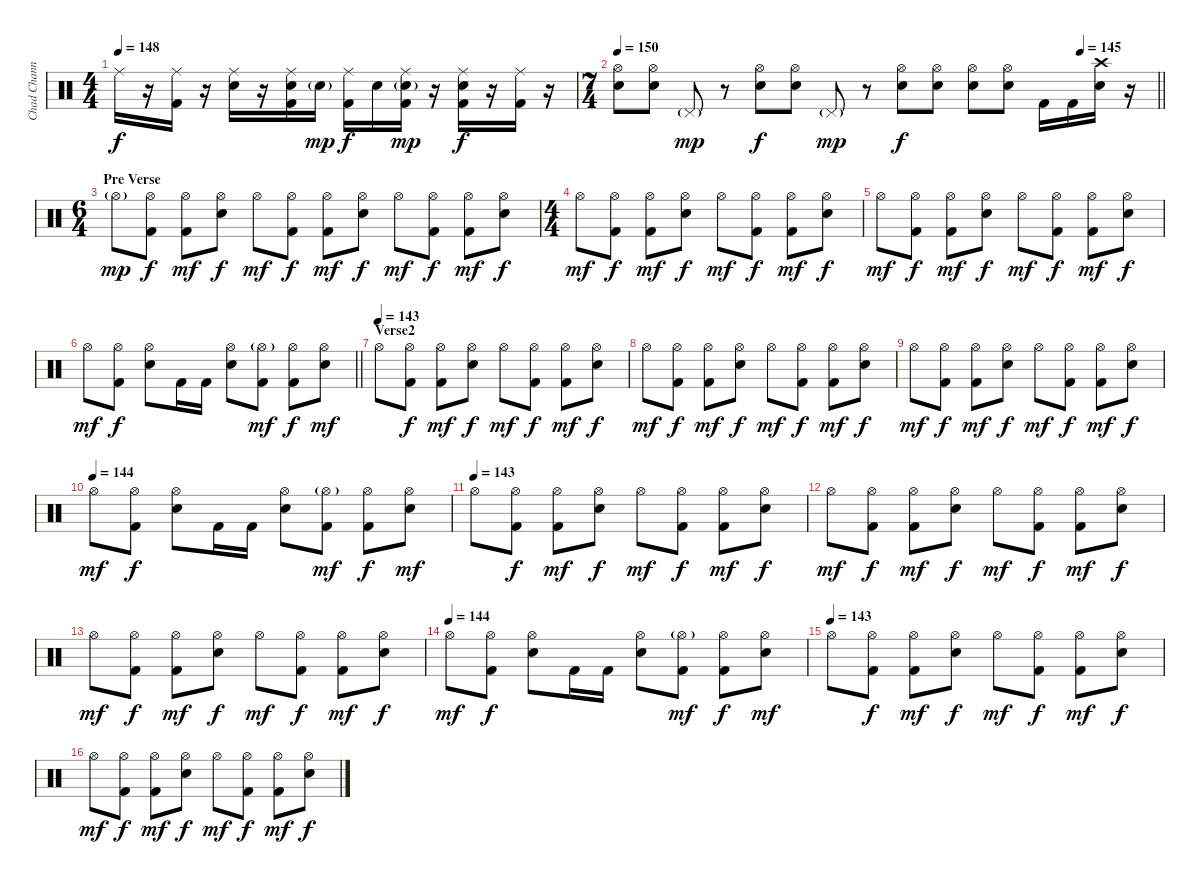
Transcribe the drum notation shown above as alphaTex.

\track ("Chad Channing" "Chad Chann") {instrument percussion}
\staff {score}
\articulation defaults
\ts (4 4)
\tempo 148
\clef neutral
\ks c "Ride (middle)".16{dy f}
r.16 ("Ride (middle)" "Kick (hit) 2").16 r.16 ("Electric Snare (hit)" "Ride (middle)").16 r.16 ("Electric Snare (hit)" "Ride (middle)" "Kick (hit) 2").16 "Electric Snare (hit)"{g}.16{dy mp} ("Ride (middle)" "Kick (hit) 2").16{dy f} "Electric Snare (hit)".16 ("Electric Snare (hit)"{g} "Ride (middle)" "Kick (hit) 2").16{dy mp} r.16 ("Electric Snare (hit)" "Ride (middle)" "Kick (hit) 2").16{dy f} r.16 ("Ride (middle)" "Kick (hit) 2").16 r.16 |
\ts (7 4)
\tempo 150
\tempo (145 0.8571428571428571)
\barLineRight lightlight
("Electric Snare (hit)" "Hi-Hat (open)").8 ("Electric Snare (hit)" "Hi-Hat (open)").8 "Pedal Hi-Hat (hit)"{g}.8{dy mp} r.8 ("Electric Snare (hit)" "Hi-Hat (open)").8{dy f} ("Electric Snare (hit)" "Hi-Hat (open)").8 "Pedal Hi-Hat (hit)"{g}.8{dy mp} r.8 ("Electric Snare (hit)" "Hi-Hat (open)").8{dy f} ("Electric Snare (hit)" "Hi-Hat (open)").8 ("Electric Snare (hit)" "Hi-Hat (open)").8 ("Electric Snare (hit)" "Hi-Hat (open)").8 "Kick (hit) 2".16 "Kick (hit) 2".16 ("Electric Snare (hit)" "Crash high (hit)").16 r.16 |
\ts (6 4)
\section ("" "Pre Verse")
"Hi-Hat (open)"{g}.8{dy mp} ("Kick (hit) 2" "Hi-Hat (open)").8{dy f} ("Kick (hit) 2" "Hi-Hat (open)").8{dy mf} ("Electric Snare (hit)" "Hi-Hat (open)").8{dy f} "Hi-Hat (open)".8{dy mf} ("Kick (hit) 2" "Hi-Hat (open)").8{dy f} ("Kick (hit) 2" "Hi-Hat (open)").8{dy mf} ("Electric Snare (hit)" "Hi-Hat (open)").8{dy f} "Hi-Hat (open)".8{dy mf} ("Kick (hit) 2" "Hi-Hat (open)").8{dy f} ("Kick (hit) 2" "Hi-Hat (open)").8{dy mf} ("Electric Snare (hit)" "Hi-Hat (open)").8{dy f} |
\ts (4 4)
"Hi-Hat (open)".8{dy mf} ("Kick (hit) 2" "Hi-Hat (open)").8{dy f} ("Kick (hit) 2" "Hi-Hat (open)").8{dy mf} ("Electric Snare (hit)" "Hi-Hat (open)").8{dy f} "Hi-Hat (open)".8{dy mf} ("Kick (hit) 2" "Hi-Hat (open)").8{dy f} ("Kick (hit) 2" "Hi-Hat (open)").8{dy mf} ("Electric Snare (hit)" "Hi-Hat (open)").8{dy f} |
"Hi-Hat (open)".8{dy mf} ("Kick (hit) 2" "Hi-Hat (open)").8{dy f} ("Kick (hit) 2" "Hi-Hat (open)").8{dy mf} ("Electric Snare (hit)" "Hi-Hat (open)").8{dy f} "Hi-Hat (open)".8{dy mf} ("Kick (hit) 2" "Hi-Hat (open)").8{dy f} ("Kick (hit) 2" "Hi-Hat (open)").8{dy mf} ("Electric Snare (hit)" "Hi-Hat (open)").8{dy f} |
\barLineRight lightlight "Hi-Hat (open)".8{dy mf}
("Kick (hit) 2" "Hi-Hat (open)").8{dy f} ("Electric Snare (hit)" "Hi-Hat (open)").8 "Kick (hit) 2".16 "Kick (hit) 2".16 ("Electric Snare (hit)" "Hi-Hat (open)").8 ("Kick (hit) 2" "Hi-Hat (open)"{g}).8{dy mf} ("Kick (hit) 2" "Hi-Hat (open)").8{dy f} ("Electric Snare (hit)" "Hi-Hat (open)").8{dy mf} |
\section ("" "Verse2")
\tempo (143)
"Hi-Hat (open)".8 ("Kick (hit) 2" "Hi-Hat (open)").8{dy f} ("Kick (hit) 2" "Hi-Hat (open)").8{dy mf} ("Electric Snare (hit)" "Hi-Hat (open)").8{dy f} "Hi-Hat (open)".8{dy mf} ("Kick (hit) 2" "Hi-Hat (open)").8{dy f} ("Kick (hit) 2" "Hi-Hat (open)").8{dy mf} ("Electric Snare (hit)" "Hi-Hat (open)").8{dy f} |
"Hi-Hat (open)".8{dy mf} ("Kick (hit) 2" "Hi-Hat (open)").8{dy f} ("Kick (hit) 2" "Hi-Hat (open)").8{dy mf} ("Electric Snare (hit)" "Hi-Hat (open)").8{dy f} "Hi-Hat (open)".8{dy mf} ("Kick (hit) 2" "Hi-Hat (open)").8{dy f} ("Kick (hit) 2" "Hi-Hat (open)").8{dy mf} ("Electric Snare (hit)" "Hi-Hat (open)").8{dy f} |
"Hi-Hat (open)".8{dy mf} ("Kick (hit) 2" "Hi-Hat (open)").8{dy f} ("Kick (hit) 2" "Hi-Hat (open)").8{dy mf} ("Electric Snare (hit)" "Hi-Hat (open)").8{dy f} "Hi-Hat (open)".8{dy mf} ("Kick (hit) 2" "Hi-Hat (open)").8{dy f} ("Kick (hit) 2" "Hi-Hat (open)").8{dy mf} ("Electric Snare (hit)" "Hi-Hat (open)").8{dy f} |
\tempo (144)
"Hi-Hat (open)".8{dy mf} ("Kick (hit) 2" "Hi-Hat (open)").8{dy f} ("Electric Snare (hit)" "Hi-Hat (open)").8 "Kick (hit) 2".16 "Kick (hit) 2".16 ("Electric Snare (hit)" "Hi-Hat (open)").8 ("Kick (hit) 2" "Hi-Hat (open)"{g}).8{dy mf} ("Kick (hit) 2" "Hi-Hat (open)").8{dy f} ("Electric Snare (hit)" "Hi-Hat (open)").8{dy mf} |
\tempo (143)
"Hi-Hat (open)".8 ("Kick (hit) 2" "Hi-Hat (open)").8{dy f} ("Kick (hit) 2" "Hi-Hat (open)").8{dy mf} ("Electric Snare (hit)" "Hi-Hat (open)").8{dy f} "Hi-Hat (open)".8{dy mf} ("Kick (hit) 2" "Hi-Hat (open)").8{dy f} ("Kick (hit) 2" "Hi-Hat (open)").8{dy mf} ("Electric Snare (hit)" "Hi-Hat (open)").8{dy f} |
"Hi-Hat (open)".8{dy mf} ("Kick (hit) 2" "Hi-Hat (open)").8{dy f} ("Kick (hit) 2" "Hi-Hat (open)").8{dy mf} ("Electric Snare (hit)" "Hi-Hat (open)").8{dy f} "Hi-Hat (open)".8{dy mf} ("Kick (hit) 2" "Hi-Hat (open)").8{dy f} ("Kick (hit) 2" "Hi-Hat (open)").8{dy mf} ("Electric Snare (hit)" "Hi-Hat (open)").8{dy f} |
"Hi-Hat (open)".8{dy mf} ("Kick (hit) 2" "Hi-Hat (open)").8{dy f} ("Kick (hit) 2" "Hi-Hat (open)").8{dy mf} ("Electric Snare (hit)" "Hi-Hat (open)").8{dy f} "Hi-Hat (open)".8{dy mf} ("Kick (hit) 2" "Hi-Hat (open)").8{dy f} ("Kick (hit) 2" "Hi-Hat (open)").8{dy mf} ("Electric Snare (hit)" "Hi-Hat (open)").8{dy f} |
\tempo (144)
"Hi-Hat (open)".8{dy mf} ("Kick (hit) 2" "Hi-Hat (open)").8{dy f} ("Electric Snare (hit)" "Hi-Hat (open)").8 "Kick (hit) 2".16 "Kick (hit) 2".16 ("Electric Snare (hit)" "Hi-Hat (open)").8 ("Kick (hit) 2" "Hi-Hat (open)"{g}).8{dy mf} ("Kick (hit) 2" "Hi-Hat (open)").8{dy f} ("Electric Snare (hit)" "Hi-Hat (open)").8{dy mf} |
\tempo (143)
"Hi-Hat (open)".8 ("Kick (hit) 2" "Hi-Hat (open)").8{dy f} ("Kick (hit) 2" "Hi-Hat (open)").8{dy mf} ("Electric Snare (hit)" "Hi-Hat (open)").8{dy f} "Hi-Hat (open)".8{dy mf} ("Kick (hit) 2" "Hi-Hat (open)").8{dy f} ("Kick (hit) 2" "Hi-Hat (open)").8{dy mf} ("Electric Snare (hit)" "Hi-Hat (open)").8{dy f} |
"Hi-Hat (open)".8{dy mf} ("Kick (hit) 2" "Hi-Hat (open)").8{dy f} ("Kick (hit) 2" "Hi-Hat (open)").8{dy mf} ("Electric Snare (hit)" "Hi-Hat (open)").8{dy f} "Hi-Hat (open)".8{dy mf} ("Kick (hit) 2" "Hi-Hat (open)").8{dy f} ("Kick (hit) 2" "Hi-Hat (open)").8{dy mf} ("Electric Snare (hit)" "Hi-Hat (open)").8{dy f}
